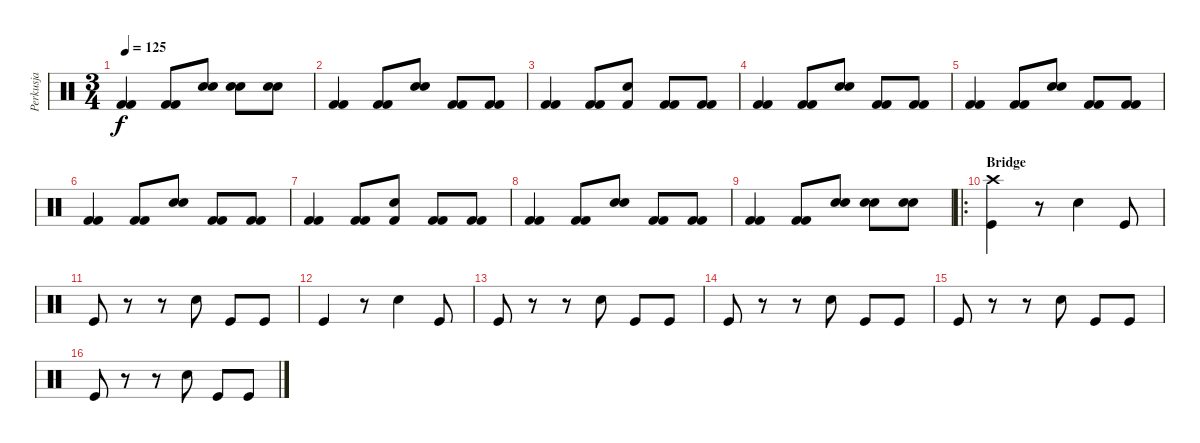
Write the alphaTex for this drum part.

\track ("Perkusja" "Perkusja") {instrument percussion}
\staff {score}
\articulation defaults
\ts (3 4)
\tempo 125
\clef neutral
\ks c
("Kick (hit) 2" "Kick (hit) 2").4{dy f} ("Kick (hit) 2" "Kick (hit) 2").8 ("Snare (hit) 2" "Snare (hit) 2").8 ("Snare (hit) 2" "Snare (hit) 2").8 ("Snare (hit) 2" "Snare (hit) 2").8 |
("Kick (hit) 2" "Kick (hit) 2").4 ("Kick (hit) 2" "Kick (hit) 2").8 ("Snare (hit) 2" "Snare (hit) 2").8 ("Kick (hit) 2" "Kick (hit) 2").8 ("Kick (hit) 2" "Kick (hit) 2").8 |
("Kick (hit) 2" "Kick (hit) 2").4 ("Kick (hit) 2" "Kick (hit) 2").8 ("Kick (hit) 2" "Snare (hit) 2").8 ("Kick (hit) 2" "Kick (hit) 2").8 ("Kick (hit) 2" "Kick (hit) 2").8 |
("Kick (hit) 2" "Kick (hit) 2").4 ("Kick (hit) 2" "Kick (hit) 2").8 ("Snare (hit) 2" "Snare (hit) 2").8 ("Kick (hit) 2" "Kick (hit) 2").8 ("Kick (hit) 2" "Kick (hit) 2").8 |
("Kick (hit) 2" "Kick (hit) 2").4 ("Kick (hit) 2" "Kick (hit) 2").8 ("Snare (hit) 2" "Snare (hit) 2").8 ("Kick (hit) 2" "Kick (hit) 2").8 ("Kick (hit) 2" "Kick (hit) 2").8 |
("Kick (hit) 2" "Kick (hit) 2").4 ("Kick (hit) 2" "Kick (hit) 2").8 ("Snare (hit) 2" "Snare (hit) 2").8 ("Kick (hit) 2" "Kick (hit) 2").8 ("Kick (hit) 2" "Kick (hit) 2").8 |
("Kick (hit) 2" "Kick (hit) 2").4 ("Kick (hit) 2" "Kick (hit) 2").8 ("Kick (hit) 2" "Snare (hit) 2").8 ("Kick (hit) 2" "Kick (hit) 2").8 ("Kick (hit) 2" "Kick (hit) 2").8 |
("Kick (hit) 2" "Kick (hit) 2").4 ("Kick (hit) 2" "Kick (hit) 2").8 ("Snare (hit) 2" "Snare (hit) 2").8 ("Kick (hit) 2" "Kick (hit) 2").8 ("Kick (hit) 2" "Kick (hit) 2").8 |
("Kick (hit) 2" "Kick (hit) 2").4 ("Kick (hit) 2" "Kick (hit) 2").8 ("Snare (hit) 2" "Snare (hit) 2").8 ("Snare (hit) 2" "Snare (hit) 2").8 ("Snare (hit) 2" "Snare (hit) 2").8 |
\ro
\section ("" "Bridge")
("Crash high (hit)" "Kick (hit)").4 r.8 "Electric Snare (hit)".4 "Kick (hit)".8 |
"Kick (hit)".8 r.8 r.8 "Electric Snare (hit)".8 "Kick (hit)".8 "Kick (hit)".8 |
"Kick (hit)".4 r.8 "Electric Snare (hit)".4 "Kick (hit)".8 |
"Kick (hit)".8 r.8 r.8 "Electric Snare (hit)".8 "Kick (hit)".8 "Kick (hit)".8 |
"Kick (hit)".8 r.8 r.8 "Electric Snare (hit)".8 "Kick (hit)".8 "Kick (hit)".8 |
"Kick (hit)".8 r.8 r.8 "Electric Snare (hit)".8 "Kick (hit)".8 "Kick (hit)".8 |
"Kick (hit)".8 r.8 r.8 "Electric Snare (hit)".8 "Kick (hit)".8 "Kick (hit)".8
